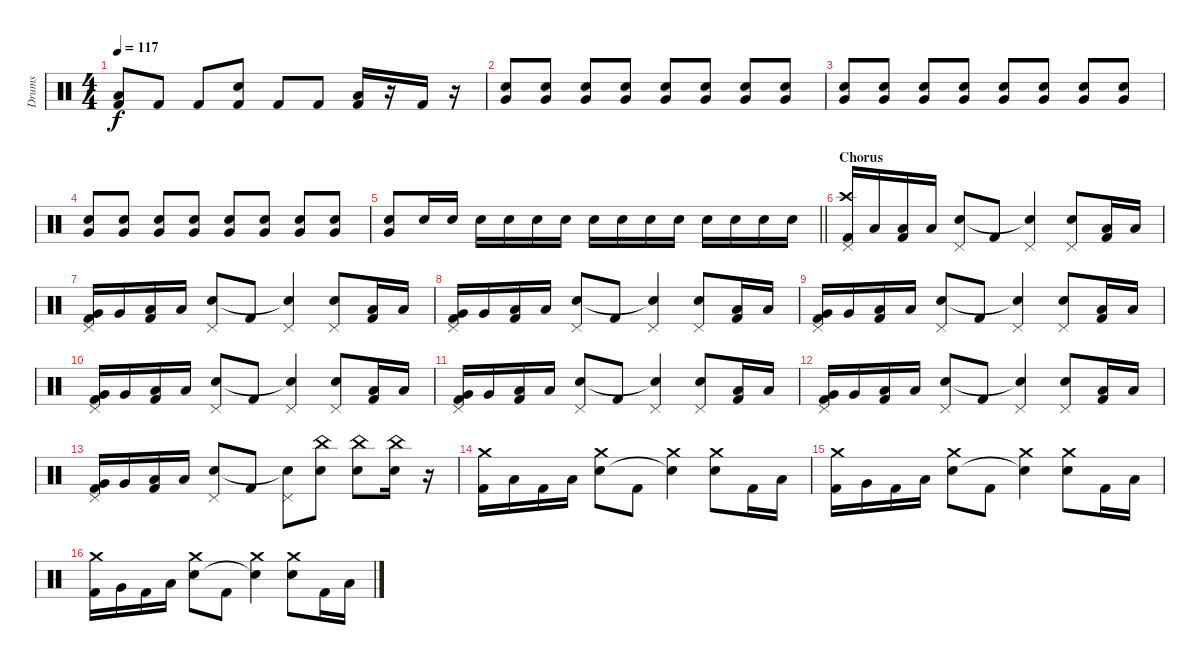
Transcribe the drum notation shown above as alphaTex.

\track ("Drums" "Drums") {instrument percussion}
\staff {score}
\articulation defaults
\ts (4 4)
\tempo 117
\clef neutral
\ks c
("Low Floor Tom (hit)" "Kick (hit) 2").8{dy f} "Kick (hit) 2".8 "Kick (hit) 2".8 ("Snare (hit) 2" "Kick (hit) 2").8 "Kick (hit) 2".8 "Kick (hit) 2".8 ("Low Tom (hit)" "Kick (hit) 2").16 r.16 "Kick (hit) 2".16 r.16 |
("Very Low Tom (hit)" "Snare (hit) 2").8 ("Very Low Tom (hit)" "Snare (hit) 2").8 ("Very Low Tom (hit)" "Snare (hit) 2").8 ("Very Low Tom (hit)" "Snare (hit) 2").8 ("Very Low Tom (hit)" "Snare (hit) 2").8 ("Very Low Tom (hit)" "Snare (hit) 2").8 ("Very Low Tom (hit)" "Snare (hit) 2").8 ("Very Low Tom (hit)" "Snare (hit) 2").8 |
("Very Low Tom (hit)" "Snare (hit) 2").8 ("Very Low Tom (hit)" "Snare (hit) 2").8 ("Very Low Tom (hit)" "Snare (hit) 2").8 ("Very Low Tom (hit)" "Snare (hit) 2").8 ("Very Low Tom (hit)" "Snare (hit) 2").8 ("Very Low Tom (hit)" "Snare (hit) 2").8 ("Very Low Tom (hit)" "Snare (hit) 2").8 ("Very Low Tom (hit)" "Snare (hit) 2").8 |
("Very Low Tom (hit)" "Snare (hit) 2").8 ("Very Low Tom (hit)" "Snare (hit) 2").8 ("Very Low Tom (hit)" "Snare (hit) 2").8 ("Very Low Tom (hit)" "Snare (hit) 2").8 ("Very Low Tom (hit)" "Snare (hit) 2").8 ("Very Low Tom (hit)" "Snare (hit) 2").8 ("Very Low Tom (hit)" "Snare (hit) 2").8 ("Very Low Tom (hit)" "Snare (hit) 2").8 |
\barLineRight lightlight
("Very Low Tom (hit)" "Snare (hit) 2").8 "Snare (hit) 2".16 "Snare (hit) 2".16 "Snare (hit) 2".16 "Snare (hit) 2".16 "Snare (hit) 2".16 "Snare (hit) 2".16 "Snare (hit) 2".16 "Snare (hit) 2".16 "Snare (hit) 2".16 "Snare (hit) 2".16 "Snare (hit) 2".16 "Snare (hit) 2".16 "Snare (hit) 2".16 "Snare (hit) 2".16 |
\section ("" "Chorus")
("Crash high (hit)" "Pedal Hi-Hat (hit)" "Kick (hit) 2").16 "Low Tom (hit)".16 ("Low Floor Tom (hit)" "Kick (hit) 2").16 "Low Floor Tom (hit)".16 ("Pedal Hi-Hat (hit)" "Snare (hit) 2").8 "Kick (hit) 2".8 ("Pedal Hi-Hat (hit)" "Snare (hit)"{t}).4 ("Pedal Hi-Hat (hit)" "Snare (hit) 2").8 ("Low Tom (hit)" "Kick (hit) 2").16 "Low Tom (hit)".16 |
("Pedal Hi-Hat (hit)" "Very Low Tom (hit)" "Kick (hit) 2").16 "Very Low Tom (hit)".16 ("Low Floor Tom (hit)" "Kick (hit) 2").16 "Low Floor Tom (hit)".16 ("Pedal Hi-Hat (hit)" "Snare (hit) 2").8 "Kick (hit) 2".8 ("Pedal Hi-Hat (hit)" "Snare (hit)"{t}).4 ("Pedal Hi-Hat (hit)" "Snare (hit) 2").8 ("Low Tom (hit)" "Kick (hit) 2").16 "Low Tom (hit)".16 |
("Pedal Hi-Hat (hit)" "Very Low Tom (hit)" "Kick (hit) 2").16 "Very Low Tom (hit)".16 ("Low Floor Tom (hit)" "Kick (hit) 2").16 "Low Floor Tom (hit)".16 ("Pedal Hi-Hat (hit)" "Snare (hit) 2").8 "Kick (hit) 2".8 ("Pedal Hi-Hat (hit)" "Snare (hit)"{t}).4 ("Pedal Hi-Hat (hit)" "Snare (hit) 2").8 ("Low Tom (hit)" "Kick (hit) 2").16 "Low Tom (hit)".16 |
("Pedal Hi-Hat (hit)" "Very Low Tom (hit)" "Kick (hit) 2").16 "Very Low Tom (hit)".16 ("Low Floor Tom (hit)" "Kick (hit) 2").16 "Low Floor Tom (hit)".16 ("Pedal Hi-Hat (hit)" "Snare (hit) 2").8 "Kick (hit) 2".8 ("Pedal Hi-Hat (hit)" "Snare (hit)"{t}).4 ("Pedal Hi-Hat (hit)" "Snare (hit) 2").8 ("Low Tom (hit)" "Kick (hit) 2").16 "Low Tom (hit)".16 |
("Pedal Hi-Hat (hit)" "Very Low Tom (hit)" "Kick (hit) 2").16 "Very Low Tom (hit)".16 ("Low Floor Tom (hit)" "Kick (hit) 2").16 "Low Floor Tom (hit)".16 ("Pedal Hi-Hat (hit)" "Snare (hit) 2").8 "Kick (hit) 2".8 ("Pedal Hi-Hat (hit)" "Snare (hit)"{t}).4 ("Pedal Hi-Hat (hit)" "Snare (hit) 2").8 ("Low Tom (hit)" "Kick (hit) 2").16 "Low Tom (hit)".16 |
("Pedal Hi-Hat (hit)" "Very Low Tom (hit)" "Kick (hit) 2").16 "Very Low Tom (hit)".16 ("Low Floor Tom (hit)" "Kick (hit) 2").16 "Low Floor Tom (hit)".16 ("Pedal Hi-Hat (hit)" "Snare (hit) 2").8 "Kick (hit) 2".8 ("Pedal Hi-Hat (hit)" "Snare (hit)"{t}).4 ("Pedal Hi-Hat (hit)" "Snare (hit) 2").8 ("Low Tom (hit)" "Kick (hit) 2").16 "Low Tom (hit)".16 |
("Pedal Hi-Hat (hit)" "Very Low Tom (hit)" "Kick (hit) 2").16 "Very Low Tom (hit)".16 ("Low Floor Tom (hit)" "Kick (hit) 2").16 "Low Floor Tom (hit)".16 ("Pedal Hi-Hat (hit)" "Snare (hit) 2").8 "Kick (hit) 2".8 ("Pedal Hi-Hat (hit)" "Snare (hit)"{t}).4 ("Pedal Hi-Hat (hit)" "Snare (hit) 2").8 ("Low Tom (hit)" "Kick (hit) 2").16 "Low Tom (hit)".16 |
("Pedal Hi-Hat (hit)" "Very Low Tom (hit)" "Kick (hit) 2").16 "Very Low Tom (hit)".16 ("Low Floor Tom (hit)" "Kick (hit) 2").16 "Low Floor Tom (hit)".16 ("Pedal Hi-Hat (hit)" "Snare (hit) 2").8 "Kick (hit) 2".8 ("Pedal Hi-Hat (hit)" "Snare (hit)"{t}).8 ("China (hit)" "Snare (hit) 2").8 ("China (hit)" "Snare (hit) 2").8 ("China (hit)" "Snare (hit) 2").16 r.16 |
("Crash medium (hit)" "Kick (hit) 2").16 "Low Tom (hit)".16 "Kick (hit) 2".16 "Low Floor Tom (hit)".16 ("Crash medium (hit)" "Snare (hit) 2").8 "Kick (hit) 2".8 ("Crash medium (hit)" "Snare (hit)"{t}).4 ("Crash medium (hit)" "Snare (hit) 2").8 "Kick (hit) 2".16 "Low Tom (hit)".16 |
("Crash medium (hit)" "Kick (hit) 2").16 "Very Low Tom (hit)".16 "Kick (hit) 2".16 "Low Floor Tom (hit)".16 ("Crash medium (hit)" "Snare (hit) 2").8 "Kick (hit) 2".8 ("Crash medium (hit)" "Snare (hit)"{t}).4 ("Crash medium (hit)" "Snare (hit) 2").8 "Kick (hit) 2".16 "Low Tom (hit)".16 |
("Crash medium (hit)" "Kick (hit) 2").16 "Very Low Tom (hit)".16 "Kick (hit) 2".16 "Low Floor Tom (hit)".16 ("Crash medium (hit)" "Snare (hit) 2").8 "Kick (hit) 2".8 ("Crash medium (hit)" "Snare (hit)"{t}).4 ("Crash medium (hit)" "Snare (hit) 2").8 "Kick (hit) 2".16 "Low Tom (hit)".16
